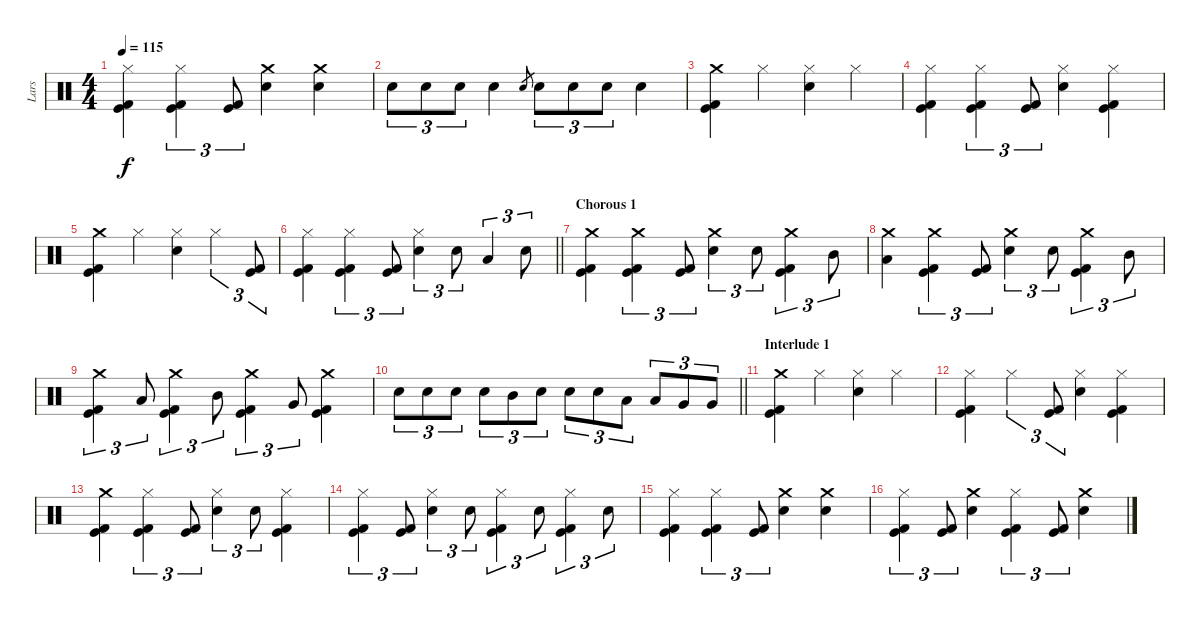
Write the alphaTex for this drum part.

\track ("Lars" "Lars") {instrument percussion}
\staff {score}
\articulation defaults
\ts (4 4)
\tempo 115
\clef neutral
\ks c
("Hi-Hat (closed)" "Kick (hit)" "Kick (hit) 2").4{dy f} ("Hi-Hat (closed)" "Kick (hit)" "Kick (hit) 2").4{tu (3 2)} ("Kick (hit)" "Kick (hit) 2").8{tu (3 2)} ("Crash medium (hit)" "Electric Snare (hit)").4 ("Crash medium (hit)" "Electric Snare (hit)").4 |
"Electric Snare (hit)".8{tu (3 2)} "Electric Snare (hit)".8{tu (3 2)} "Electric Snare (hit)".8{tu (3 2)} "Electric Snare (hit)".4 "Electric Snare (hit)".8{gr} "Electric Snare (hit)".8{tu (3 2)} "Electric Snare (hit)".8{tu (3 2)} "Electric Snare (hit)".8{tu (3 2)} "Electric Snare (hit)".4 |
("Crash medium (hit)" "Kick (hit)" "Kick (hit) 2").4 "Hi-Hat (closed)".4 ("Hi-Hat (closed)" "Electric Snare (hit)").4 "Hi-Hat (closed)".4 |
("Hi-Hat (closed)" "Kick (hit)" "Kick (hit) 2").4 ("Hi-Hat (closed)" "Kick (hit)" "Kick (hit) 2").4{tu (3 2)} ("Kick (hit)" "Kick (hit) 2").8{tu (3 2)} ("Hi-Hat (closed)" "Electric Snare (hit)").4 ("Hi-Hat (closed)" "Kick (hit)" "Kick (hit) 2").4 |
("Crash medium (hit)" "Kick (hit)" "Kick (hit) 2").4 "Hi-Hat (closed)".4 ("Hi-Hat (closed)" "Electric Snare (hit)").4 "Hi-Hat (closed)".4{tu (3 2)} ("Kick (hit)" "Kick (hit) 2").8{tu (3 2)} |
\barLineRight lightlight
("Hi-Hat (closed)" "Kick (hit)" "Kick (hit) 2").4 ("Hi-Hat (closed)" "Kick (hit)" "Kick (hit) 2").4{tu (3 2)} ("Kick (hit)" "Kick (hit) 2").8{tu (3 2)} ("Hi-Hat (closed)" "Electric Snare (hit)").4{tu (3 2)} "Electric Snare (hit)".8{tu (3 2)} "Low Tom (hit)".4{tu (3 2)} "Electric Snare (hit)".8{tu (3 2)} |
\section ("" "Chorous 1")
("Crash medium (hit)" "Kick (hit)" "Kick (hit) 2").4 ("Crash medium (hit)" "Kick (hit)" "Kick (hit) 2").4{tu (3 2)} ("Kick (hit)" "Kick (hit) 2").8{tu (3 2)} ("Crash medium (hit)" "Electric Snare (hit)").4{tu (3 2)} "Electric Snare (hit)".8{tu (3 2)} ("Crash medium (hit)" "Kick (hit)" "Kick (hit) 2").4{tu (3 2)} "Mid Tom (hit)".8{tu (3 2)} |
("Crash medium (hit)" "Low Tom (hit)").4 ("Crash medium (hit)" "Kick (hit)" "Kick (hit) 2").4{tu (3 2)} ("Kick (hit)" "Kick (hit) 2").8{tu (3 2)} ("Crash medium (hit)" "Electric Snare (hit)").4{tu (3 2)} "Electric Snare (hit)".8{tu (3 2)} ("Crash medium (hit)" "Kick (hit)" "Kick (hit) 2").4{tu (3 2)} "Mid Tom (hit)".8{tu (3 2)} |
("Crash medium (hit)" "Kick (hit)" "Kick (hit) 2").4{tu (3 2)} "Low Tom (hit)".8{tu (3 2)} ("Crash medium (hit)" "Kick (hit)" "Kick (hit) 2").4{tu (3 2)} "Mid Tom (hit)".8{tu (3 2)} ("Crash medium (hit)" "Kick (hit)" "Kick (hit) 2").4{tu (3 2)} "Very Low Tom (hit)".8{tu (3 2)} ("Crash medium (hit)" "Kick (hit)" "Kick (hit) 2").4 |
\barLineRight lightlight "Electric Snare (hit)".8{tu (3 2)} "Electric Snare (hit)".8{tu (3 2)} "Electric Snare (hit)".8{tu (3 2)} "Electric Snare (hit)".8{tu (3 2)} "Mid Tom (hit)".8{tu (3 2)} "Electric Snare (hit)".8{tu (3 2)} "Electric Snare (hit)".8{tu (3 2)} "Electric Snare (hit)".8{tu (3 2)} "Low Tom (hit)".8{tu (3 2)} "Low Tom (hit)".8{tu (3 2)} "Very Low Tom (hit)".8{tu (3 2)} "Very Low Tom (hit)".8{tu (3 2)}
|
\section ("" "Interlude 1")
("Crash medium (hit)" "Kick (hit)" "Kick (hit) 2").4 "Hi-Hat (closed)".4 ("Hi-Hat (closed)" "Electric Snare (hit)").4 "Hi-Hat (closed)".4 |
("Hi-Hat (closed)" "Kick (hit)" "Kick (hit) 2").4 "Hi-Hat (closed)".4{tu (3 2)} ("Kick (hit)" "Kick (hit) 2").8{tu (3 2)} ("Hi-Hat (closed)" "Electric Snare (hit)").4 ("Hi-Hat (closed)" "Kick (hit)" "Kick (hit) 2").4 |
("Crash medium (hit)" "Kick (hit)" "Kick (hit) 2").4 ("Hi-Hat (closed)" "Kick (hit)" "Kick (hit) 2").4{tu (3 2)} ("Kick (hit)" "Kick (hit) 2").8{tu (3 2)} ("Hi-Hat (closed)" "Electric Snare (hit)").4{tu (3 2)} "Electric Snare (hit)".8{tu (3 2)} ("Hi-Hat (closed)" "Kick (hit)" "Kick (hit) 2").4 |
("Hi-Hat (closed)" "Kick (hit)" "Kick (hit) 2").4{tu (3 2)} ("Kick (hit)" "Kick (hit) 2").8{tu (3 2)} ("Hi-Hat (closed)" "Electric Snare (hit)").4{tu (3 2)} "Electric Snare (hit)".8{tu (3 2)} ("Hi-Hat (closed)" "Kick (hit)" "Kick (hit) 2").4{tu (3 2)} "Electric Snare (hit)".8{tu (3 2)} ("Hi-Hat (closed)" "Kick (hit)" "Kick (hit) 2").4{tu (3 2)} "Electric Snare (hit)".8{tu (3 2)} |
("Hi-Hat (closed)" "Kick (hit)" "Kick (hit) 2").4 ("Hi-Hat (closed)" "Kick (hit)" "Kick (hit) 2").4{tu (3 2)} ("Kick (hit)" "Kick (hit) 2").8{tu (3 2)} ("Crash medium (hit)" "Electric Snare (hit)").4 ("Crash medium (hit)" "Electric Snare (hit)").4 |
("Hi-Hat (closed)" "Kick (hit)" "Kick (hit) 2").4{tu (3 2)} ("Kick (hit)" "Kick (hit) 2").8{tu (3 2)} ("Crash medium (hit)" "Electric Snare (hit)").4 ("Hi-Hat (closed)" "Kick (hit)" "Kick (hit) 2").4{tu (3 2)} ("Kick (hit)" "Kick (hit) 2").8{tu (3 2)} ("Crash medium (hit)" "Electric Snare (hit)").4
